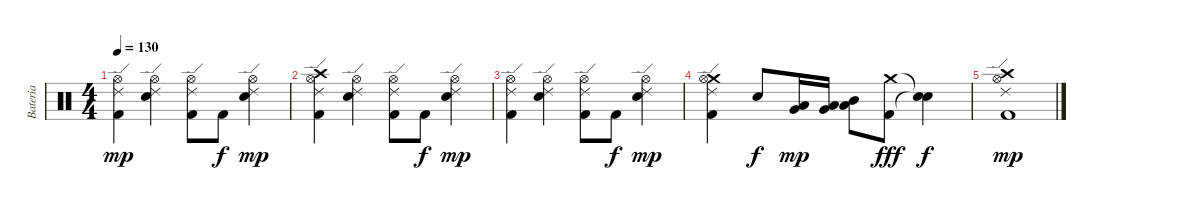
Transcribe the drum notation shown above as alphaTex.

\track ("Bateria" "Bateria") {instrument percussion}
\staff {score}
\articulation defaults
\ts (4 4)
\tempo 130
\clef neutral
\ks c
("Hi-Hat (open)" "Ride (edge) 2" "Kick (hit) 2").4{dy mp} ("Electric Snare (hit)" "Hi-Hat (open)" "Ride (edge) 2").4 ("Hi-Hat (open)" "Ride (edge) 2" "Kick (hit) 2").8 "Kick (hit) 2".8{dy f} ("Electric Snare (hit)" "Hi-Hat (open)" "Ride (edge) 2").4{dy mp} |
("Crash high (hit)" "Hi-Hat (open)" "Ride (edge) 2" "Kick (hit) 2").4 ("Electric Snare (hit)" "Hi-Hat (open)" "Ride (edge) 2").4 ("Hi-Hat (open)" "Ride (edge) 2" "Kick (hit) 2").8 "Kick (hit) 2".8{dy f} ("Electric Snare (hit)" "Hi-Hat (open)" "Ride (edge) 2").4{dy mp} |
("Hi-Hat (open)" "Ride (edge) 2" "Kick (hit) 2").4 ("Electric Snare (hit)" "Hi-Hat (open)" "Ride (edge) 2").4 ("Hi-Hat (open)" "Ride (edge) 2" "Kick (hit) 2").8 "Kick (hit) 2".8{dy f} ("Electric Snare (hit)" "Hi-Hat (open)" "Ride (edge) 2").4{dy mp} |
("Crash medium (hit)" "Hi-Hat (open)" "Ride (edge) 2" "Kick (hit) 2").4 "Electric Snare (hit)".8{dy f} ("Very Low Tom (hit)" "Low Floor Tom (hit)").16{dy mp} ("Low Tom (hit)" "Very Low Tom (hit)").16 ("Mid Tom (hit)" "Low Tom (hit)").8 ("Crash medium (hit)" "Kick (hit) 2").8{dy fff} ("Snare (hit)"{t} "Snare (hit)"{t}).4{dy f} |
("Crash high (hit)" "Hi-Hat (open)" "Ride (edge) 2" "Kick (hit) 2").1{dy mp}
